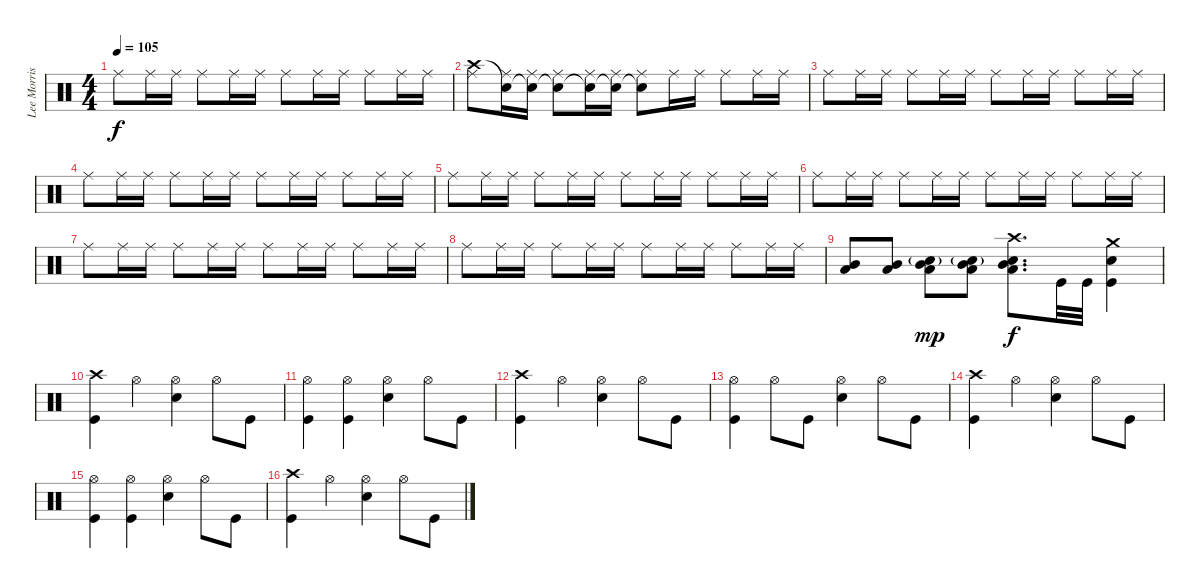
\track ("Lee Morris" "Lee Morris") {instrument percussion}
\staff {score}
\articulation defaults
\ts (4 4)
\tempo 105
\clef neutral
\ks c "Ride (middle)".8{dy f} "Ride (middle)".16 "Ride (middle)".16 "Ride (middle)".8 "Ride (middle)".16 "Ride (middle)".16 "Ride (middle)".8 "Ride (middle)".16 "Ride (middle)".16 "Ride (middle)".8 "Ride (middle)".16 "Ride (middle)".16
|
("Ride (middle)" "Crash high (hit)").8 ("Ride (middle)" "Snare (hit)"{t}).16 ("Ride (middle)" "Snare (hit)"{t}).16 ("Ride (middle)" "Snare (hit)"{t}).8 ("Ride (middle)" "Snare (hit)"{t}).16 ("Ride (middle)" "Snare (hit)"{t}).16 ("Ride (middle)" "Snare (hit)"{t}).8 "Ride (middle)".16 "Ride (middle)".16 "Ride (middle)".8 "Ride (middle)".16 "Ride (middle)".16 |
"Ride (middle)".8 "Ride (middle)".16 "Ride (middle)".16 "Ride (middle)".8 "Ride (middle)".16 "Ride (middle)".16 "Ride (middle)".8 "Ride (middle)".16 "Ride (middle)".16 "Ride (middle)".8 "Ride (middle)".16 "Ride (middle)".16 |
"Ride (middle)".8 "Ride (middle)".16 "Ride (middle)".16 "Ride (middle)".8 "Ride (middle)".16 "Ride (middle)".16 "Ride (middle)".8 "Ride (middle)".16 "Ride (middle)".16 "Ride (middle)".8 "Ride (middle)".16 "Ride (middle)".16 |
"Ride (middle)".8 "Ride (middle)".16 "Ride (middle)".16 "Ride (middle)".8 "Ride (middle)".16 "Ride (middle)".16 "Ride (middle)".8 "Ride (middle)".16 "Ride (middle)".16 "Ride (middle)".8 "Ride (middle)".16 "Ride (middle)".16 |
"Ride (middle)".8 "Ride (middle)".16 "Ride (middle)".16 "Ride (middle)".8 "Ride (middle)".16 "Ride (middle)".16 "Ride (middle)".8 "Ride (middle)".16 "Ride (middle)".16 "Ride (middle)".8 "Ride (middle)".16 "Ride (middle)".16 |
"Ride (middle)".8 "Ride (middle)".16 "Ride (middle)".16 "Ride (middle)".8 "Ride (middle)".16 "Ride (middle)".16 "Ride (middle)".8 "Ride (middle)".16 "Ride (middle)".16 "Ride (middle)".8 "Ride (middle)".16 "Ride (middle)".16 |
"Ride (middle)".8 "Ride (middle)".16 "Ride (middle)".16 "Ride (middle)".8 "Ride (middle)".16 "Ride (middle)".16 "Ride (middle)".8 "Ride (middle)".16 "Ride (middle)".16 "Ride (middle)".8 "Ride (middle)".16 "Ride (middle)".16 |
("Mid Tom (hit)" "Low Tom (hit)").8 ("Mid Tom (hit)" "Low Tom (hit)").8 ("Snare (hit) 2"{g} "Mid Tom (hit)" "Low Tom (hit)").8{dy mp} ("Snare (hit) 2"{g} "Mid Tom (hit)" "Low Tom (hit)").8 ("Snare (hit) 2" "Mid Tom (hit)" "Low Tom (hit)" "Crash high (hit)").8{d dy f} "Kick (hit)".32 "Kick (hit)".32 ("Kick (hit)" "Snare (hit) 2" "Crash medium (hit)").4 |
("Kick (hit)" "Crash high (hit)").4 "Hi-Hat (open)".4 ("Snare (hit) 2" "Hi-Hat (open)").4 "Hi-Hat (open)".8 "Kick (hit)".8 |
("Kick (hit)" "Hi-Hat (open)").4 ("Kick (hit)" "Hi-Hat (open)").4 ("Snare (hit) 2" "Hi-Hat (open)").4 "Hi-Hat (open)".8 "Kick (hit)".8 |
("Kick (hit)" "Crash high (hit)").4 "Hi-Hat (open)".4 ("Snare (hit) 2" "Hi-Hat (open)").4 "Hi-Hat (open)".8 "Kick (hit)".8 |
("Kick (hit)" "Hi-Hat (open)").4 "Hi-Hat (open)".8 "Kick (hit)".8 ("Snare (hit) 2" "Hi-Hat (open)").4 "Hi-Hat (open)".8 "Kick (hit)".8 |
("Kick (hit)" "Crash high (hit)").4 "Hi-Hat (open)".4 ("Snare (hit) 2" "Hi-Hat (open)").4 "Hi-Hat (open)".8 "Kick (hit)".8 |
("Kick (hit)" "Hi-Hat (open)").4 ("Kick (hit)" "Hi-Hat (open)").4 ("Snare (hit) 2" "Hi-Hat (open)").4 "Hi-Hat (open)".8 "Kick (hit)".8 |
("Kick (hit)" "Crash high (hit)").4 "Hi-Hat (open)".4 ("Snare (hit) 2" "Hi-Hat (open)").4 "Hi-Hat (open)".8 "Kick (hit)".8
